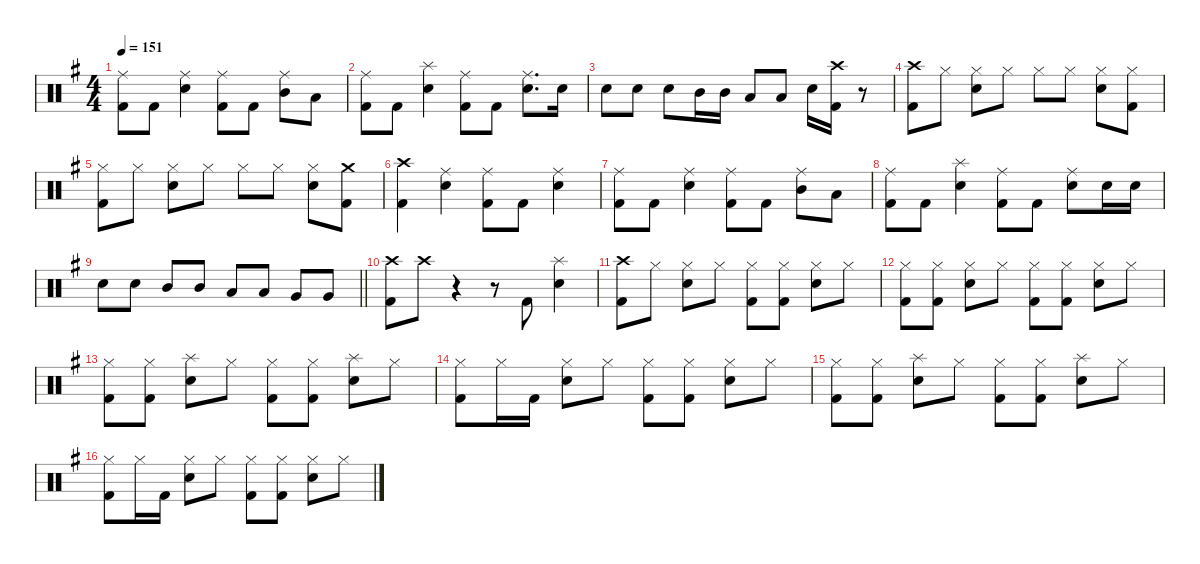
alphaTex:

\defaultSystemsLayout 4
\hideDynamics
\bracketExtendMode nobrackets
\singleTrackTrackNamePolicy hidden
\multiTrackTrackNamePolicy hidden
\otherSystemsTrackNameOrientation horizontal
\track ("Lars Ulrich" "drm.") {instrument percussion}
\staff {score}
\articulation defaults
\ts (4 4)
\tempo 151
\clef neutral
\ks eminor
("Ride (middle)"{acc forcenatural} "Kick (hit) 2"{acc forcenatural}).8{dy f beam Down} "Kick (hit) 2"{acc forcenatural}.8{beam Down} ("Ride (middle)"{acc forcenatural} "Snare (hit) 2"{acc forcenatural}).4{beam Down} ("Ride (middle)"{acc forcenatural} "Kick (hit) 2"{acc forcenatural}).8{beam Down} "Kick (hit) 2"{acc forcenatural}.8{beam Down} ("Ride (middle)"{acc forcenatural} "Mid Tom (hit)"{acc forcenatural}).8{beam Down} "Low Tom (hit)"{acc forcenatural}.8{beam Down} |
("Ride (middle)"{acc forcenatural} "Kick (hit) 2"{acc forcenatural}).8{beam Down} "Kick (hit) 2"{acc forcenatural}.8{beam Down} ("Splash (hit)"{acc forcenatural} "Snare (hit) 2"{acc forcenatural}).4{beam Down} ("Ride (middle)"{acc forcenatural} "Kick (hit) 2"{acc forcenatural}).8{beam Down} "Kick (hit) 2"{acc forcenatural}.8{beam Down} ("Ride (middle)"{acc forcenatural} "Snare (hit) 2"{acc forcenatural}).8{d beam Down} "Snare (hit) 2"{acc forcenatural}.16{beam Down} |
"Snare (hit) 2"{acc forcenatural}.8{beam Down} "Snare (hit) 2"{acc forcenatural}.8{beam Down} "Snare (hit) 2"{acc forcenatural}.8{beam Down} "Mid Tom (hit)"{acc forcenatural}.16{beam Down} "Mid Tom (hit)"{acc forcenatural}.16{beam Down} "Low Tom (hit)"{acc forcenatural}.8{beam Up} "Low Tom (hit)"{acc forcenatural}.8{beam Up} "Snare (hit) 2"{acc forcenatural}.16{beam Down} ("Crash high (hit)"{acc forcenatural} "Kick (hit) 2"{acc forcenatural}).16{beam Down} r.8{beam Down} |
("Crash high (hit)"{acc forcenatural} "Kick (hit) 2"{acc forcenatural}).8{beam Down} "Hi-Hat (closed)"{acc forcenatural}.8{beam Down} ("Hi-Hat (closed)"{acc forcenatural} "Snare (hit) 2"{acc forcenatural}).8{beam Down} "Hi-Hat (closed)"{acc forcenatural}.8{beam Down} "Hi-Hat (closed)"{acc forcenatural}.8{beam Down} "Hi-Hat (closed)"{acc forcenatural}.8{beam Down} ("Hi-Hat (closed)"{acc forcenatural} "Snare (hit) 2"{acc forcenatural}).8{beam Down} ("Hi-Hat (closed)"{acc forcenatural} "Kick (hit) 2"{acc forcenatural}).8{beam Down} |
("Hi-Hat (closed)"{acc forcenatural} "Kick (hit) 2"{acc forcenatural}).8{beam Down} "Hi-Hat (closed)"{acc forcenatural}.8{beam Down} ("Hi-Hat (closed)"{acc forcenatural} "Snare (hit) 2"{acc forcenatural}).8{beam Down} "Hi-Hat (closed)"{acc forcenatural}.8{beam Down} "Hi-Hat (closed)"{acc forcenatural}.8{beam Down} "Hi-Hat (closed)"{acc forcenatural}.8{beam Down} ("Hi-Hat (closed)"{acc forcenatural} "Snare (hit) 2"{acc forcenatural}).8{beam Down} ("Crash medium (hit)"{acc forcenatural} "Kick (hit) 2"{acc forcenatural}).8{beam Down} |
("Crash high (hit)"{acc forcenatural} "Kick (hit) 2"{acc forcenatural}).4{beam Down} ("Ride (middle)"{acc forcenatural} "Snare (hit) 2"{acc forcenatural}).4{beam Down} ("Ride (middle)"{acc forcenatural} "Kick (hit) 2"{acc forcenatural}).8{beam Down} "Kick (hit) 2"{acc forcenatural}.8{beam Down} ("Ride (middle)"{acc forcenatural} "Snare (hit) 2"{acc forcenatural}).4{beam Down} |
("Ride (middle)"{acc forcenatural} "Kick (hit) 2"{acc forcenatural}).8{beam Down} "Kick (hit) 2"{acc forcenatural}.8{beam Down} ("Ride (middle)"{acc forcenatural} "Snare (hit) 2"{acc forcenatural}).4{beam Down} ("Ride (middle)"{acc forcenatural} "Kick (hit) 2"{acc forcenatural}).8{beam Down} "Kick (hit) 2"{acc forcenatural}.8{beam Down} ("Ride (middle)"{acc forcenatural} "Mid Tom (hit)"{acc forcenatural}).8{beam Down} "Low Tom (hit)"{acc forcenatural}.8{beam Down} |
("Ride (middle)"{acc forcenatural} "Kick (hit) 2"{acc forcenatural}).8{beam Down} "Kick (hit) 2"{acc forcenatural}.8{beam Down} ("Splash (hit)"{acc forcenatural} "Snare (hit) 2"{acc forcenatural}).4{beam Down} ("Ride (middle)"{acc forcenatural} "Kick (hit) 2"{acc forcenatural}).8{beam Down} "Kick (hit) 2"{acc forcenatural}.8{beam Down} ("Ride (middle)"{acc forcenatural} "Snare (hit) 2"{acc forcenatural}).8{beam Down} "Snare (hit) 2"{acc forcenatural}.16{beam Down} "Snare (hit) 2"{acc forcenatural}.16{beam Down} |
\barLineRight lightlight "Snare (hit) 2"{acc forcenatural}.8{beam Down} "Snare (hit) 2"{acc forcenatural}.8{beam Down} "Mid Tom (hit)"{acc forcenatural}.8{beam Up} "Mid Tom (hit)"{acc forcenatural}.8{beam Up} "Low Tom (hit)"{acc forcenatural}.8{beam Up} "Low Tom (hit)"{acc forcenatural}.8{beam Up} "Very Low Tom (hit)"{acc forcenatural}.8{beam Up} "Very Low Tom (hit)"{acc forcenatural}.8{beam Up}
|
("Crash high (hit)"{acc forcenatural} "Kick (hit) 2"{acc forcenatural}).8{beam Down} "Crash high (hit)"{acc forcenatural}.8{beam Down} r.4{beam Down} r.8{beam Down} "Kick (hit) 2"{acc forcenatural}.8{beam Up} ("Splash (hit)"{acc forcenatural} "Snare (hit) 2"{acc forcenatural}).4{beam Down} |
("Crash high (hit)"{acc forcenatural} "Kick (hit) 2"{acc forcenatural}).8{beam Down} "Hi-Hat (closed)"{acc forcenatural}.8{beam Down} ("Hi-Hat (closed)"{acc forcenatural} "Snare (hit) 2"{acc forcenatural}).8{beam Down} "Hi-Hat (closed)"{acc forcenatural}.8{beam Down} ("Hi-Hat (closed)"{acc forcenatural} "Kick (hit) 2"{acc forcenatural}).8{beam Down} ("Hi-Hat (closed)"{acc forcenatural} "Kick (hit) 2"{acc forcenatural}).8{beam Down} ("Hi-Hat (closed)"{acc forcenatural} "Snare (hit) 2"{acc forcenatural}).8{beam Down} "Hi-Hat (closed)"{acc forcenatural}.8{beam Down} |
("Hi-Hat (closed)"{acc forcenatural} "Kick (hit) 2"{acc forcenatural}).8{beam Down} ("Hi-Hat (closed)"{acc forcenatural} "Kick (hit) 2"{acc forcenatural}).8{beam Down} ("Hi-Hat (closed)"{acc forcenatural} "Snare (hit) 2"{acc forcenatural}).8{beam Down} "Hi-Hat (closed)"{acc forcenatural}.8{beam Down} ("Hi-Hat (closed)"{acc forcenatural} "Kick (hit) 2"{acc forcenatural}).8{beam Down} ("Hi-Hat (closed)"{acc forcenatural} "Kick (hit) 2"{acc forcenatural}).8{beam Down} ("Hi-Hat (closed)"{acc forcenatural} "Snare (hit) 2"{acc forcenatural}).8{beam Down} "Hi-Hat (closed)"{acc forcenatural}.8{beam Down} |
("Hi-Hat (closed)"{acc forcenatural} "Kick (hit) 2"{acc forcenatural}).8{beam Down} ("Hi-Hat (closed)"{acc forcenatural} "Kick (hit) 2"{acc forcenatural}).8{beam Down} ("Splash (hit)"{acc forcenatural} "Snare (hit) 2"{acc forcenatural}).8{beam Down} "Hi-Hat (closed)"{acc forcenatural}.8{beam Down} ("Hi-Hat (closed)"{acc forcenatural} "Kick (hit) 2"{acc forcenatural}).8{beam Down} ("Hi-Hat (closed)"{acc forcenatural} "Kick (hit) 2"{acc forcenatural}).8{beam Down} ("Splash (hit)"{acc forcenatural} "Snare (hit) 2"{acc forcenatural}).8{beam Down} "Hi-Hat (closed)"{acc forcenatural}.8{beam Down} |
("Hi-Hat (closed)"{acc forcenatural} "Kick (hit) 2"{acc forcenatural}).8{beam Down} "Hi-Hat (closed)"{acc forcenatural}.16{beam Down} "Kick (hit) 2"{acc forcenatural}.16{beam Down} ("Hi-Hat (closed)"{acc forcenatural} "Snare (hit) 2"{acc forcenatural}).8{beam Down} "Hi-Hat (closed)"{acc forcenatural}.8{beam Down} ("Hi-Hat (closed)"{acc forcenatural} "Kick (hit) 2"{acc forcenatural}).8{beam Down} ("Hi-Hat (closed)"{acc forcenatural} "Kick (hit) 2"{acc forcenatural}).8{beam Down} ("Hi-Hat (closed)"{acc forcenatural} "Snare (hit) 2"{acc forcenatural}).8{beam Down} "Hi-Hat (closed)"{acc forcenatural}.8{beam Down} |
("Hi-Hat (closed)"{acc forcenatural} "Kick (hit) 2"{acc forcenatural}).8{beam Down} ("Hi-Hat (closed)"{acc forcenatural} "Kick (hit) 2"{acc forcenatural}).8{beam Down} ("Splash (hit)"{acc forcenatural} "Snare (hit) 2"{acc forcenatural}).8{beam Down} "Hi-Hat (closed)"{acc forcenatural}.8{beam Down} ("Hi-Hat (closed)"{acc forcenatural} "Kick (hit) 2"{acc forcenatural}).8{beam Down} ("Hi-Hat (closed)"{acc forcenatural} "Kick (hit) 2"{acc forcenatural}).8{beam Down} ("Splash (hit)"{acc forcenatural} "Snare (hit) 2"{acc forcenatural}).8{beam Down} "Hi-Hat (closed)"{acc forcenatural}.8{beam Down} |
("Hi-Hat (closed)"{acc forcenatural} "Kick (hit) 2"{acc forcenatural}).8{beam Down} "Hi-Hat (closed)"{acc forcenatural}.16{beam Down} "Kick (hit) 2"{acc forcenatural}.16{beam Down} ("Hi-Hat (closed)"{acc forcenatural} "Snare (hit) 2"{acc forcenatural}).8{beam Down} "Hi-Hat (closed)"{acc forcenatural}.8{beam Down} ("Hi-Hat (closed)"{acc forcenatural} "Kick (hit) 2"{acc forcenatural}).8{beam Down} ("Hi-Hat (closed)"{acc forcenatural} "Kick (hit) 2"{acc forcenatural}).8{beam Down} ("Hi-Hat (closed)"{acc forcenatural} "Snare (hit) 2"{acc forcenatural}).8{beam Down} "Hi-Hat (closed)"{acc forcenatural}.8{beam Down}
